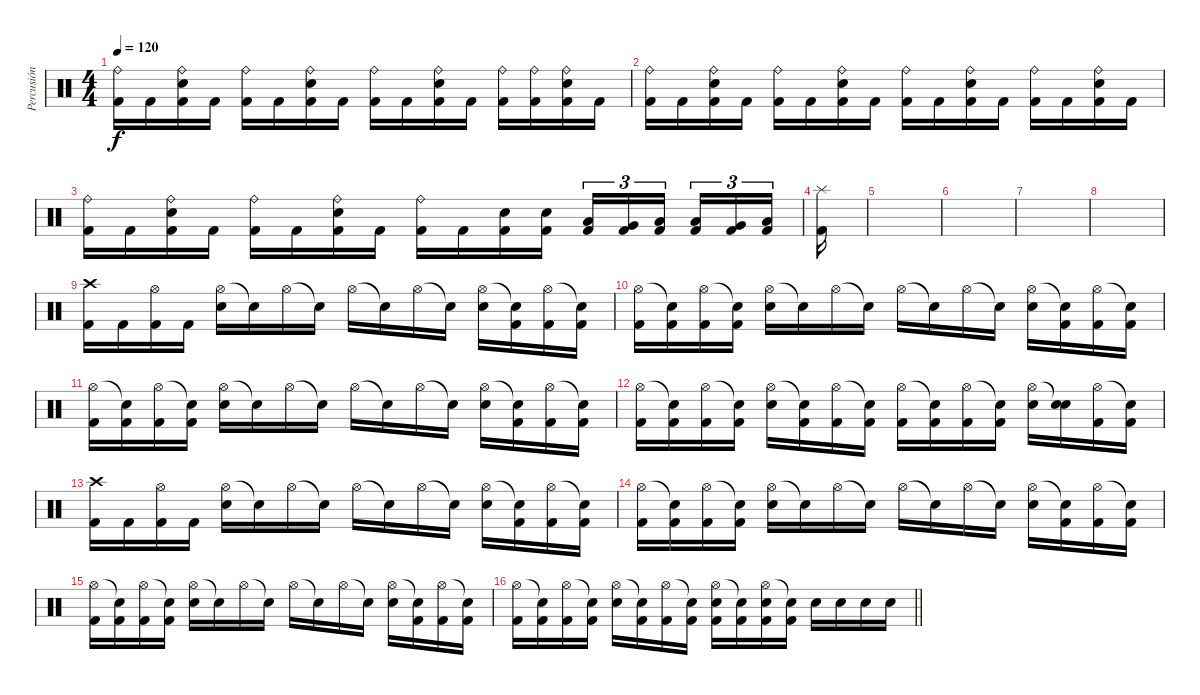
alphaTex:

\track ("Percusión" "Percusión") {instrument percussion}
\staff {score}
\articulation defaults
\ts (4 4)
\tempo 120
\clef neutral
\ks c
("Ride (bell)" "Kick (hit) 2").16{dy f} "Kick (hit) 2".16 ("Ride (bell)" "Snare (hit) 2" "Kick (hit) 2").16 "Kick (hit) 2".16 ("Ride (bell)" "Kick (hit) 2").16 "Kick (hit) 2".16 ("Ride (bell)" "Snare (hit) 2" "Kick (hit) 2").16 "Kick (hit) 2".16 ("Ride (bell)" "Kick (hit) 2").16 "Kick (hit) 2".16 ("Ride (bell)" "Snare (hit) 2" "Kick (hit) 2").16 "Kick (hit) 2".16 ("Ride (bell)" "Kick (hit) 2").16 ("Ride (bell)" "Kick (hit) 2").16 ("Ride (bell)" "Snare (hit) 2" "Kick (hit) 2").16 "Kick (hit) 2".16 |
("Ride (bell)" "Kick (hit) 2").16 "Kick (hit) 2".16 ("Ride (bell)" "Snare (hit) 2" "Kick (hit) 2").16 "Kick (hit) 2".16 ("Ride (bell)" "Kick (hit) 2").16 "Kick (hit) 2".16 ("Ride (bell)" "Snare (hit) 2" "Kick (hit) 2").16 "Kick (hit) 2".16 ("Ride (bell)" "Kick (hit) 2").16 "Kick (hit) 2".16 ("Ride (bell)" "Snare (hit) 2" "Kick (hit) 2").16 "Kick (hit) 2".16 ("Ride (bell)" "Kick (hit) 2").16 "Kick (hit) 2".16 ("Ride (bell)" "Snare (hit) 2" "Kick (hit) 2").16 "Kick (hit) 2".16 |
("Ride (bell)" "Kick (hit) 2").16 "Kick (hit) 2".16 ("Ride (bell)" "Snare (hit) 2" "Kick (hit) 2").16 "Kick (hit) 2".16 ("Ride (bell)" "Kick (hit) 2").16 "Kick (hit) 2".16 ("Ride (bell)" "Snare (hit) 2" "Kick (hit) 2").16 "Kick (hit) 2".16 ("Ride (bell)" "Kick (hit) 2").16 "Kick (hit) 2".16 ("Snare (hit) 2" "Kick (hit) 2").16 ("Snare (hit) 2" "Kick (hit) 2").16 ("Low Tom (hit)" "Kick (hit) 2").16{tu (3 2)} ("Very Low Tom (hit)" "Kick (hit) 2").16{tu (3 2)} ("Low Floor Tom (hit)" "Kick (hit) 2").16{tu (3 2) beam splitsecondary} ("Low Tom (hit)" "Kick (hit) 2").16{tu (3 2)} ("Very Low Tom (hit)" "Kick (hit) 2").16{tu (3 2)} ("Low Floor Tom (hit)" "Kick (hit) 2").16{tu (3 2)} |
("Splash (hit)" "Kick (hit) 2").16 |
|
|
|
|
("Crash high (hit)" "Kick (hit) 2").16 "Kick (hit) 2".16 ("Hi-Hat (open)" "Kick (hit) 2").16 "Kick (hit) 2".16 ("Hi-Hat (open)" "Snare (hit) 2").16 "Snare (hit)"{t}.16 "Hi-Hat (open)".16 "Snare (hit)"{t}.16 "Hi-Hat (open)".16 "Snare (hit)"{t}.16 "Hi-Hat (open)".16 "Snare (hit)"{t}.16 ("Hi-Hat (open)" "Snare (hit) 2").16 ("Snare (hit)"{t} "Kick (hit) 2").16 ("Hi-Hat (open)" "Kick (hit) 2").16 ("Snare (hit)"{t} "Kick (hit) 2").16 |
("Hi-Hat (open)" "Kick (hit) 2").16 ("Snare (hit)"{t} "Kick (hit) 2").16 ("Hi-Hat (open)" "Kick (hit) 2").16 ("Snare (hit)"{t} "Kick (hit) 2").16 ("Hi-Hat (open)" "Snare (hit) 2").16 "Snare (hit)"{t}.16 "Hi-Hat (open)".16 "Snare (hit)"{t}.16 "Hi-Hat (open)".16 "Snare (hit)"{t}.16 "Hi-Hat (open)".16 "Snare (hit)"{t}.16 ("Hi-Hat (open)" "Snare (hit) 2").16 ("Snare (hit)"{t} "Kick (hit) 2").16 ("Hi-Hat (open)" "Kick (hit) 2").16 ("Snare (hit)"{t} "Kick (hit) 2").16 |
("Hi-Hat (open)" "Kick (hit) 2").16 ("Snare (hit)"{t} "Kick (hit) 2").16 ("Hi-Hat (open)" "Kick (hit) 2").16 ("Snare (hit)"{t} "Kick (hit) 2").16 ("Hi-Hat (open)" "Snare (hit) 2").16 "Snare (hit)"{t}.16 "Hi-Hat (open)".16 "Snare (hit)"{t}.16 "Hi-Hat (open)".16 "Snare (hit)"{t}.16 "Hi-Hat (open)".16 "Snare (hit)"{t}.16 ("Hi-Hat (open)" "Snare (hit) 2").16 ("Snare (hit)"{t} "Kick (hit) 2").16 ("Hi-Hat (open)" "Kick (hit) 2").16 ("Snare (hit)"{t} "Kick (hit) 2").16 |
("Hi-Hat (open)" "Kick (hit) 2").16 ("Snare (hit)"{t} "Kick (hit) 2").16 ("Hi-Hat (open)" "Kick (hit) 2").16 ("Snare (hit)"{t} "Kick (hit) 2").16 ("Hi-Hat (open)" "Snare (hit) 2").16 ("Snare (hit)"{t} "Kick (hit) 2").16 ("Hi-Hat (open)" "Kick (hit) 2").16 ("Snare (hit)"{t} "Kick (hit) 2").16 ("Hi-Hat (open)" "Kick (hit) 2").16 ("Snare (hit)"{t} "Kick (hit) 2").16 ("Hi-Hat (open)" "Kick (hit) 2").16 ("Snare (hit)"{t} "Kick (hit) 2").16 ("Hi-Hat (open)" "Snare (hit) 2").16 ("Snare (hit)"{t} "Snare (hit) 2").16 ("Hi-Hat (open)" "Kick (hit) 2").16 ("Snare (hit)"{t} "Kick (hit) 2").16 |
("Crash high (hit)" "Kick (hit) 2").16 "Kick (hit) 2".16 ("Hi-Hat (open)" "Kick (hit) 2").16 "Kick (hit) 2".16 ("Hi-Hat (open)" "Snare (hit) 2").16 "Snare (hit)"{t}.16 "Hi-Hat (open)".16 "Snare (hit)"{t}.16 "Hi-Hat (open)".16 "Snare (hit)"{t}.16 "Hi-Hat (open)".16 "Snare (hit)"{t}.16 ("Hi-Hat (open)" "Snare (hit) 2").16 ("Snare (hit)"{t} "Kick (hit) 2").16 ("Hi-Hat (open)" "Kick (hit) 2").16 ("Snare (hit)"{t} "Kick (hit) 2").16 |
("Hi-Hat (open)" "Kick (hit) 2").16 ("Snare (hit)"{t} "Kick (hit) 2").16 ("Hi-Hat (open)" "Kick (hit) 2").16 ("Snare (hit)"{t} "Kick (hit) 2").16 ("Hi-Hat (open)" "Snare (hit) 2").16 "Snare (hit)"{t}.16 "Hi-Hat (open)".16 "Snare (hit)"{t}.16 "Hi-Hat (open)".16 "Snare (hit)"{t}.16 "Hi-Hat (open)".16 "Snare (hit)"{t}.16 ("Hi-Hat (open)" "Snare (hit) 2").16 ("Snare (hit)"{t} "Kick (hit) 2").16 ("Hi-Hat (open)" "Kick (hit) 2").16 ("Snare (hit)"{t} "Kick (hit) 2").16 |
("Hi-Hat (open)" "Kick (hit) 2").16 ("Snare (hit)"{t} "Kick (hit) 2").16 ("Hi-Hat (open)" "Kick (hit) 2").16 ("Snare (hit)"{t} "Kick (hit) 2").16 ("Hi-Hat (open)" "Snare (hit) 2").16 "Snare (hit)"{t}.16 "Hi-Hat (open)".16 "Snare (hit)"{t}.16 "Hi-Hat (open)".16 "Snare (hit)"{t}.16 "Hi-Hat (open)".16 "Snare (hit)"{t}.16 ("Hi-Hat (open)" "Snare (hit) 2").16 ("Snare (hit)"{t} "Kick (hit) 2").16 ("Hi-Hat (open)" "Kick (hit) 2").16 ("Snare (hit)"{t} "Kick (hit) 2").16 |
\barLineRight lightlight
("Hi-Hat (open)" "Kick (hit) 2").16 ("Snare (hit)"{t} "Kick (hit) 2").16 ("Hi-Hat (open)" "Kick (hit) 2").16 ("Snare (hit)"{t} "Kick (hit) 2").16 ("Hi-Hat (open)" "Snare (hit) 2").16 ("Snare (hit)"{t} "Kick (hit) 2").16 ("Hi-Hat (open)" "Kick (hit) 2").16 ("Snare (hit)"{t} "Kick (hit) 2").16 ("Hi-Hat (open)" "Snare (hit) 2" "Kick (hit) 2").16 ("Snare (hit)"{t} "Kick (hit) 2").16 ("Hi-Hat (open)" "Snare (hit) 2" "Kick (hit) 2").16 ("Snare (hit)"{t} "Kick (hit) 2").16 "Snare (hit) 2".16 "Snare (hit) 2".16 "Snare (hit) 2".16 "Snare (hit) 2".16
